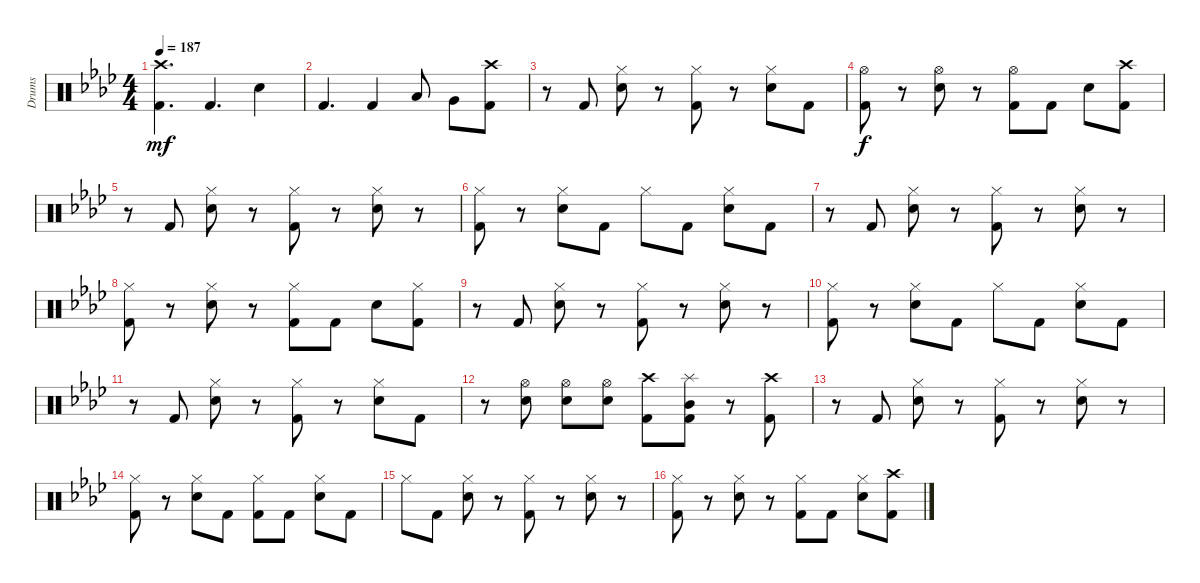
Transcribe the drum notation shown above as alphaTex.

\track ("Drums" "Drums") {instrument percussion}
\staff {score}
\articulation defaults
\ts (4 4)
\tempo 187
\clef neutral
\ks ab
("Crash high (hit)" "Kick (hit) 2").4{d dy mf} "Kick (hit) 2".4{d} "Electric Snare (hit)".4 |
"Kick (hit) 2".4{d} "Kick (hit) 2".4 "Low Tom (hit)".8 "Very Low Tom (hit)".8 ("Crash high (hit)" "Kick (hit) 2").8 |
r.8 "Kick (hit) 2".8 ("Hi-Hat (closed)" "Electric Snare (hit)").8 r.8 ("Hi-Hat (closed)" "Kick (hit) 2").8 r.8 ("Hi-Hat (closed)" "Electric Snare (hit)").8 "Kick (hit) 2".8 |
("Hi-Hat (open)" "Kick (hit) 2").8{dy f} r.8 ("Hi-Hat (open)" "Electric Snare (hit)").8 r.8 ("Hi-Hat (open)" "Kick (hit) 2").8 "Kick (hit) 2".8 "Electric Snare (hit)".8 ("Crash high (hit)" "Kick (hit) 2").8 |
r.8 "Kick (hit) 2".8 ("Hi-Hat (closed)" "Electric Snare (hit)").8 r.8 ("Hi-Hat (closed)" "Kick (hit) 2").8 r.8 ("Hi-Hat (closed)" "Electric Snare (hit)").8 r.8 |
("Hi-Hat (closed)" "Kick (hit) 2").8 r.8 ("Hi-Hat (closed)" "Electric Snare (hit)").8 "Kick (hit) 2".8 "Hi-Hat (closed)".8 "Kick (hit) 2".8 ("Hi-Hat (closed)" "Electric Snare (hit)").8 "Kick (hit) 2".8 |
r.8 "Kick (hit) 2".8 ("Hi-Hat (closed)" "Electric Snare (hit)").8 r.8 ("Hi-Hat (closed)" "Kick (hit) 2").8 r.8 ("Hi-Hat (closed)" "Electric Snare (hit)").8 r.8 |
("Hi-Hat (closed)" "Kick (hit) 2").8 r.8 ("Hi-Hat (closed)" "Electric Snare (hit)").8 r.8 ("Hi-Hat (closed)" "Kick (hit) 2").8 "Kick (hit) 2".8 "Electric Snare (hit)".8 ("Hi-Hat (closed)" "Kick (hit) 2").8 |
r.8 "Kick (hit) 2".8 ("Hi-Hat (closed)" "Electric Snare (hit)").8 r.8 ("Hi-Hat (closed)" "Kick (hit) 2").8 r.8 ("Hi-Hat (closed)" "Electric Snare (hit)").8 r.8 |
("Hi-Hat (closed)" "Kick (hit) 2").8 r.8 ("Hi-Hat (closed)" "Electric Snare (hit)").8 "Kick (hit) 2".8 "Hi-Hat (closed)".8 "Kick (hit) 2".8 ("Hi-Hat (closed)" "Electric Snare (hit)").8 "Kick (hit) 2".8 |
r.8 "Kick (hit) 2".8 ("Hi-Hat (closed)" "Electric Snare (hit)").8 r.8 ("Hi-Hat (closed)" "Kick (hit) 2").8 r.8 ("Hi-Hat (closed)" "Electric Snare (hit)").8 "Kick (hit) 2".8 |
r.8 ("Hi-Hat (open)" "Electric Snare (hit)").8 ("Hi-Hat (open)" "Electric Snare (hit)").8 ("Hi-Hat (open)" "Electric Snare (hit)").8 ("Crash high (hit)" "Kick (hit) 2").8 ("Splash (hit)" "Mid Tom (hit)" "Kick (hit) 2").8 r.8 ("Crash high (hit)" "Kick (hit) 2").8 |
r.8 "Kick (hit) 2".8 ("Hi-Hat (closed)" "Electric Snare (hit)").8 r.8 ("Hi-Hat (closed)" "Kick (hit) 2").8 r.8 ("Hi-Hat (closed)" "Electric Snare (hit)").8 r.8 |
("Hi-Hat (closed)" "Kick (hit) 2").8 r.8 ("Hi-Hat (closed)" "Electric Snare (hit)").8 "Kick (hit) 2".8 ("Hi-Hat (closed)" "Kick (hit) 2").8 "Kick (hit) 2".8 ("Hi-Hat (closed)" "Electric Snare (hit)").8 "Kick (hit) 2".8 |
"Hi-Hat (closed)".8 "Kick (hit) 2".8 ("Hi-Hat (closed)" "Electric Snare (hit)").8 r.8 ("Hi-Hat (closed)" "Kick (hit) 2").8 r.8 ("Hi-Hat (closed)" "Electric Snare (hit)").8 r.8 |
("Hi-Hat (closed)" "Kick (hit) 2").8 r.8 ("Hi-Hat (closed)" "Electric Snare (hit)").8 r.8 ("Hi-Hat (closed)" "Kick (hit) 2").8 "Kick (hit) 2".8 ("Hi-Hat (closed)" "Electric Snare (hit)").8 ("Crash high (hit)" "Kick (hit) 2").8
